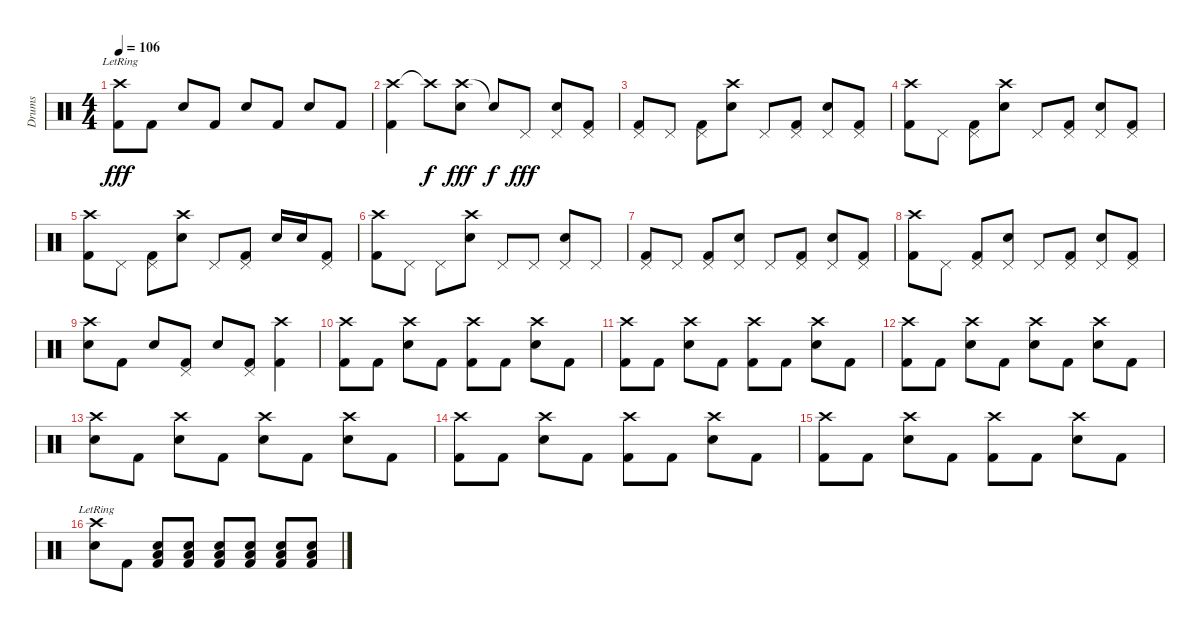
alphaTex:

\track ("Drums" "Drums") {instrument percussion}
\staff {score}
\articulation defaults
\ts (4 4)
\tempo 106
\clef neutral
\ks c
("Crash high (hit)"{lr} "Kick (hit) 2").8{dy fff} "Kick (hit) 2".8 "Snare (hit) 2".8 "Kick (hit) 2".8 "Snare (hit) 2".8 "Kick (hit) 2".8 "Snare (hit) 2".8 "Kick (hit) 2".8 |
("Crash high (hit)" "Kick (hit) 2").4 "Crash high (hit)"{t}.8{dy f} ("Crash high (hit)" "Snare (hit) 2").8{dy fff} "Snare (hit)"{t}.8{dy f} "Pedal Hi-Hat (hit)".8{dy fff} ("Pedal Hi-Hat (hit)" "Snare (hit) 2").8 ("Pedal Hi-Hat (hit)" "Kick (hit) 2").8 |
("Pedal Hi-Hat (hit)" "Kick (hit) 2").8 "Pedal Hi-Hat (hit)".8 ("Pedal Hi-Hat (hit)" "Kick (hit) 2").8 ("Crash high (hit)" "Snare (hit) 2").8 "Pedal Hi-Hat (hit)".8 ("Pedal Hi-Hat (hit)" "Kick (hit) 2").8 ("Pedal Hi-Hat (hit)" "Snare (hit) 2").8 ("Pedal Hi-Hat (hit)" "Kick (hit) 2").8 |
("Crash high (hit)" "Kick (hit) 2").8 "Pedal Hi-Hat (hit)".8 ("Pedal Hi-Hat (hit)" "Kick (hit) 2").8 ("Crash high (hit)" "Snare (hit) 2").8 "Pedal Hi-Hat (hit)".8 ("Pedal Hi-Hat (hit)" "Kick (hit) 2").8 ("Pedal Hi-Hat (hit)" "Snare (hit) 2").8 ("Pedal Hi-Hat (hit)" "Kick (hit) 2").8 |
("Crash high (hit)" "Kick (hit) 2").8 "Pedal Hi-Hat (hit)".8 ("Pedal Hi-Hat (hit)" "Kick (hit) 2").8 ("Crash high (hit)" "Snare (hit) 2").8 "Pedal Hi-Hat (hit)".8 ("Pedal Hi-Hat (hit)" "Kick (hit) 2").8 "Snare (hit) 2".16 "Snare (hit) 2".16 ("Pedal Hi-Hat (hit)" "Kick (hit) 2").8 |
("Crash high (hit)" "Kick (hit) 2").8 "Pedal Hi-Hat (hit)".8 "Pedal Hi-Hat (hit)".8 ("Crash high (hit)" "Snare (hit) 2").8 "Pedal Hi-Hat (hit)".8 "Pedal Hi-Hat (hit)".8 ("Pedal Hi-Hat (hit)" "Snare (hit) 2").8 "Pedal Hi-Hat (hit)".8 |
("Pedal Hi-Hat (hit)" "Kick (hit) 2").8 "Pedal Hi-Hat (hit)".8 ("Pedal Hi-Hat (hit)" "Kick (hit) 2").8 ("Pedal Hi-Hat (hit)" "Snare (hit) 2").8 "Pedal Hi-Hat (hit)".8 ("Pedal Hi-Hat (hit)" "Kick (hit) 2").8 ("Pedal Hi-Hat (hit)" "Snare (hit) 2").8 ("Pedal Hi-Hat (hit)" "Kick (hit) 2").8 |
("Crash high (hit)" "Kick (hit) 2").8 "Pedal Hi-Hat (hit)".8 ("Pedal Hi-Hat (hit)" "Kick (hit) 2").8 ("Pedal Hi-Hat (hit)" "Snare (hit) 2").8 "Pedal Hi-Hat (hit)".8 ("Pedal Hi-Hat (hit)" "Kick (hit) 2").8 ("Pedal Hi-Hat (hit)" "Snare (hit) 2").8 ("Pedal Hi-Hat (hit)" "Kick (hit) 2").8 |
("Crash high (hit)" "Snare (hit) 2").8 "Kick (hit) 2".8 "Snare (hit) 2".8 ("Pedal Hi-Hat (hit)" "Kick (hit) 2").8 "Snare (hit) 2".8 ("Pedal Hi-Hat (hit)" "Kick (hit) 2").8 ("Crash high (hit)" "Kick (hit) 2").4 |
("Crash high (hit)" "Kick (hit) 2").8 "Kick (hit) 2".8 ("Crash high (hit)" "Snare (hit) 2").8 "Kick (hit) 2".8 ("Crash high (hit)" "Kick (hit) 2").8 "Kick (hit) 2".8 ("Crash high (hit)" "Snare (hit) 2").8 "Kick (hit) 2".8 |
("Crash high (hit)" "Kick (hit) 2").8 "Kick (hit) 2".8 ("Crash high (hit)" "Snare (hit) 2").8 "Kick (hit) 2".8 ("Crash high (hit)" "Kick (hit) 2").8 "Kick (hit) 2".8 ("Crash high (hit)" "Snare (hit) 2").8 "Kick (hit) 2".8 |
("Crash high (hit)" "Kick (hit) 2").8 "Kick (hit) 2".8 ("Crash high (hit)" "Snare (hit) 2").8 "Kick (hit) 2".8 ("Crash high (hit)" "Snare (hit) 2").8 "Kick (hit) 2".8 ("Crash high (hit)" "Snare (hit) 2").8 "Kick (hit) 2".8 |
("Crash high (hit)" "Snare (hit) 2").8 "Kick (hit) 2".8 ("Crash high (hit)" "Snare (hit) 2").8 "Kick (hit) 2".8 ("Crash high (hit)" "Snare (hit) 2").8 "Kick (hit) 2".8 ("Crash high (hit)" "Snare (hit) 2").8 "Kick (hit) 2".8 |
("Crash high (hit)" "Kick (hit) 2").8 "Kick (hit) 2".8 ("Crash high (hit)" "Snare (hit) 2").8 "Kick (hit) 2".8 ("Crash high (hit)" "Kick (hit) 2").8 "Kick (hit) 2".8 ("Crash high (hit)" "Snare (hit) 2").8 "Kick (hit) 2".8 |
("Crash high (hit)" "Kick (hit) 2").8 "Kick (hit) 2".8 ("Crash high (hit)" "Snare (hit) 2").8 "Kick (hit) 2".8 ("Crash high (hit)" "Kick (hit) 2").8 "Kick (hit) 2".8 ("Crash high (hit)" "Snare (hit) 2").8 "Kick (hit) 2".8 |
("Crash high (hit)"{lr} "Snare (hit) 2").8 "Kick (hit) 2".8 ("Snare (hit) 2" "Low Tom (hit)" "Kick (hit) 2").8 ("Snare (hit) 2" "Low Tom (hit)" "Kick (hit) 2").8 ("Snare (hit) 2" "Low Tom (hit)" "Kick (hit) 2").8 ("Snare (hit) 2" "Low Tom (hit)" "Kick (hit) 2").8 ("Snare (hit) 2" "Low Tom (hit)" "Kick (hit) 2").8 ("Snare (hit) 2" "Low Tom (hit)" "Kick (hit) 2").8
